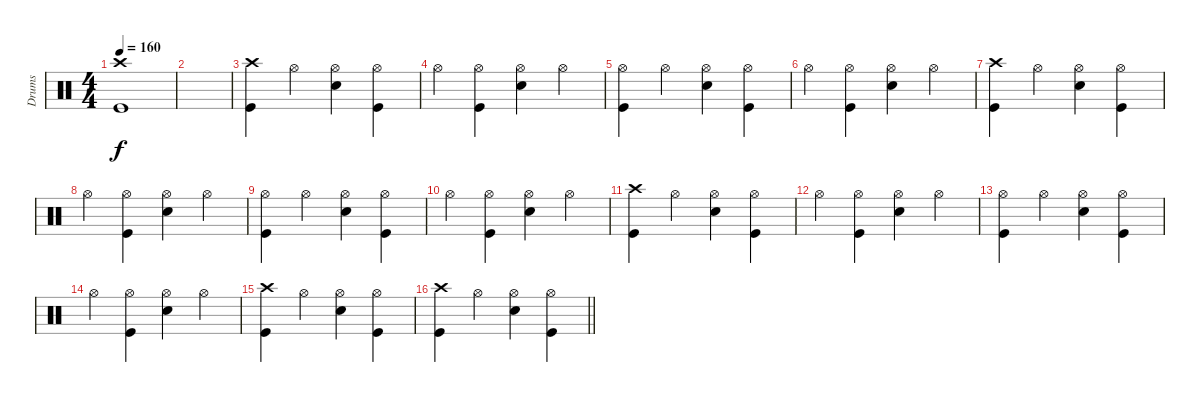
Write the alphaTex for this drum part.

\track ("Drums" "Drums") {instrument percussion}
\staff {score}
\articulation defaults
\ts (4 4)
\tempo 160
\clef neutral
\ks c
("Kick (hit)" "Crash high (hit)").1{dy f} |
|
("Kick (hit)" "Crash high (hit)").4 "Hi-Hat (open)".4 ("Snare (hit) 2" "Hi-Hat (open)").4 ("Kick (hit)" "Hi-Hat (open)").4 |
"Hi-Hat (open)".4 ("Hi-Hat (open)" "Kick (hit)").4 ("Snare (hit) 2" "Hi-Hat (open)").4 "Hi-Hat (open)".4 |
("Kick (hit)" "Hi-Hat (open)").4 "Hi-Hat (open)".4 ("Snare (hit) 2" "Hi-Hat (open)").4 ("Kick (hit)" "Hi-Hat (open)").4 |
"Hi-Hat (open)".4 ("Kick (hit)" "Hi-Hat (open)").4 ("Snare (hit) 2" "Hi-Hat (open)").4 "Hi-Hat (open)".4 |
("Kick (hit)" "Crash high (hit)").4 "Hi-Hat (open)".4 ("Snare (hit) 2" "Hi-Hat (open)").4 ("Kick (hit)" "Hi-Hat (open)").4 |
"Hi-Hat (open)".4 ("Hi-Hat (open)" "Kick (hit)").4 ("Snare (hit) 2" "Hi-Hat (open)").4 "Hi-Hat (open)".4 |
("Kick (hit)" "Hi-Hat (open)").4 "Hi-Hat (open)".4 ("Snare (hit) 2" "Hi-Hat (open)").4 ("Kick (hit)" "Hi-Hat (open)").4 |
"Hi-Hat (open)".4 ("Kick (hit)" "Hi-Hat (open)").4 ("Snare (hit) 2" "Hi-Hat (open)").4 "Hi-Hat (open)".4 |
("Kick (hit)" "Crash high (hit)").4 "Hi-Hat (open)".4 ("Snare (hit) 2" "Hi-Hat (open)").4 ("Kick (hit)" "Hi-Hat (open)").4 |
"Hi-Hat (open)".4 ("Hi-Hat (open)" "Kick (hit)").4 ("Snare (hit) 2" "Hi-Hat (open)").4 "Hi-Hat (open)".4 |
("Kick (hit)" "Hi-Hat (open)").4 "Hi-Hat (open)".4 ("Snare (hit) 2" "Hi-Hat (open)").4 ("Kick (hit)" "Hi-Hat (open)").4 |
"Hi-Hat (open)".4 ("Kick (hit)" "Hi-Hat (open)").4 ("Snare (hit) 2" "Hi-Hat (open)").4 "Hi-Hat (open)".4 |
("Kick (hit)" "Crash high (hit)").4 "Hi-Hat (open)".4 ("Snare (hit) 2" "Hi-Hat (open)").4 ("Kick (hit)" "Hi-Hat (open)").4 |
\barLineRight lightlight
("Crash high (hit)" "Kick (hit)").4 "Hi-Hat (open)".4 ("Snare (hit) 2" "Hi-Hat (open)").4 ("Hi-Hat (open)" "Kick (hit)").4
